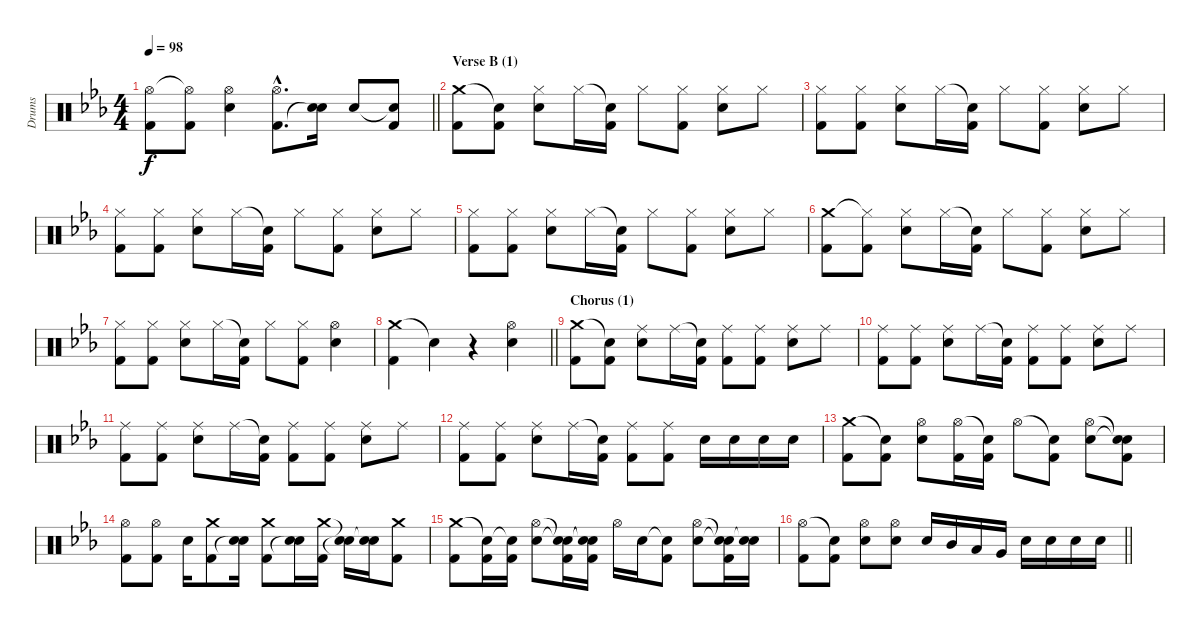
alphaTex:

\track ("Drums" "Drums") {instrument percussion}
\staff {score}
\articulation defaults
\ts (4 4)
\tempo 98
\clef neutral
\barLineRight lightlight
\ks cminor
("Hi-Hat (open)" "Kick (hit) 2").8{dy f} ("Hi-Hat (open)"{t} "Kick (hit) 2").8 ("Hi-Hat (open)" "Electric Snare (hit)").4 ("Hi-Hat (open)"{hac} "Kick (hit) 2"{hac}).8{d} ("Electric Snare (hit)" "Snare (hit)"{t}).16 "Electric Snare (hit)".8 ("Snare (hit)"{t} "Kick (hit) 2").8 |
\section ("" "Verse B (1)")
("Crash medium (hit)" "Kick (hit) 2").8 ("Snare (hit)"{t} "Kick (hit) 2").8 ("Hi-Hat (closed)" "Electric Snare (hit)").8 "Hi-Hat (closed)".16 ("Snare (hit)"{t} "Kick (hit) 2").16 "Hi-Hat (closed)".8 ("Hi-Hat (closed)" "Kick (hit) 2").8 ("Hi-Hat (closed)" "Electric Snare (hit)").8 "Hi-Hat (closed)".8 |
("Hi-Hat (closed)" "Kick (hit) 2").8 ("Hi-Hat (closed)" "Kick (hit) 2").8 ("Hi-Hat (closed)" "Electric Snare (hit)").8 "Hi-Hat (closed)".16 ("Snare (hit)"{t} "Kick (hit) 2").16 "Hi-Hat (closed)".8 ("Hi-Hat (closed)" "Kick (hit) 2").8 ("Hi-Hat (closed)" "Electric Snare (hit)").8 "Hi-Hat (closed)".8 |
("Hi-Hat (closed)" "Kick (hit) 2").8 ("Hi-Hat (closed)" "Kick (hit) 2").8 ("Hi-Hat (closed)" "Electric Snare (hit)").8 "Hi-Hat (closed)".16 ("Snare (hit)"{t} "Kick (hit) 2").16 "Hi-Hat (closed)".8 ("Hi-Hat (closed)" "Kick (hit) 2").8 ("Hi-Hat (closed)" "Electric Snare (hit)").8 "Hi-Hat (closed)".8 |
("Hi-Hat (closed)" "Kick (hit) 2").8 ("Hi-Hat (closed)" "Kick (hit) 2").8 ("Hi-Hat (closed)" "Electric Snare (hit)").8 "Hi-Hat (closed)".16 ("Snare (hit)"{t} "Kick (hit) 2").16 "Hi-Hat (closed)".8 ("Hi-Hat (closed)" "Kick (hit) 2").8 ("Hi-Hat (closed)" "Electric Snare (hit)").8 "Hi-Hat (closed)".8 |
("Crash medium (hit)" "Kick (hit) 2").8 ("Hi-Hat (closed)"{t} "Kick (hit) 2").8 ("Hi-Hat (closed)" "Electric Snare (hit)").8 "Hi-Hat (closed)".16 ("Snare (hit)"{t} "Kick (hit) 2").16 "Hi-Hat (closed)".8 ("Hi-Hat (closed)" "Kick (hit) 2").8 ("Hi-Hat (closed)" "Electric Snare (hit)").8 "Hi-Hat (closed)".8 |
("Hi-Hat (closed)" "Kick (hit) 2").8 ("Hi-Hat (closed)" "Kick (hit) 2").8 ("Hi-Hat (closed)" "Electric Snare (hit)").8 "Hi-Hat (closed)".16 ("Snare (hit)"{t} "Kick (hit) 2").16 "Hi-Hat (closed)".8 ("Hi-Hat (closed)" "Kick (hit) 2").8 ("Hi-Hat (open)" "Electric Snare (hit)").4 |
\barLineRight lightlight
("Crash medium (hit)" "Kick (hit) 2").4 "Snare (hit)"{t}.4 r.4 ("Hi-Hat (open)" "Electric Snare (hit)").4 |
\section ("" "Chorus (1)")
("Crash medium (hit)" "Kick (hit) 2").8 ("Snare (hit)"{t} "Kick (hit) 2").8 ("Ride (middle)" "Electric Snare (hit)").8 "Ride (middle)".16 ("Snare (hit)"{t} "Kick (hit) 2").16 ("Ride (middle)" "Kick (hit) 2").8 ("Ride (middle)" "Kick (hit) 2").8 ("Ride (middle)" "Electric Snare (hit)").8 "Ride (middle)".8 |
("Ride (middle)" "Kick (hit) 2").8 ("Ride (middle)" "Kick (hit) 2").8 ("Ride (middle)" "Electric Snare (hit)").8 "Ride (middle)".16 ("Snare (hit)"{t} "Kick (hit) 2").16 ("Ride (middle)" "Kick (hit) 2").8 ("Ride (middle)" "Kick (hit) 2").8 ("Ride (middle)" "Electric Snare (hit)").8 "Ride (middle)".8 |
("Ride (middle)" "Kick (hit) 2").8 ("Ride (middle)" "Kick (hit) 2").8 ("Ride (middle)" "Electric Snare (hit)").8 "Ride (middle)".16 ("Snare (hit)"{t} "Kick (hit) 2").16 ("Ride (middle)" "Kick (hit) 2").8 ("Ride (middle)" "Kick (hit) 2").8 ("Ride (middle)" "Electric Snare (hit)").8 "Ride (middle)".8 |
("Ride (middle)" "Kick (hit) 2").8 ("Ride (middle)" "Kick (hit) 2").8 ("Ride (middle)" "Electric Snare (hit)").8 "Ride (middle)".16 ("Snare (hit)"{t} "Kick (hit) 2").16 ("Ride (middle)" "Kick (hit) 2").8 ("Ride (middle)" "Kick (hit) 2").8 "Electric Snare (hit)".16 "Electric Snare (hit)".16 "Electric Snare (hit)".16 "Electric Snare (hit)".16 |
("Crash medium (hit)" "Kick (hit) 2").8 ("Snare (hit)"{t} "Kick (hit) 2").8 ("Hi-Hat (open)" "Electric Snare (hit)").8 ("Hi-Hat (open)" "Kick (hit) 2").16 ("Snare (hit)"{t} "Kick (hit) 2").16 "Hi-Hat (open)".8 ("Snare (hit)"{t} "Kick (hit) 2").8 ("Hi-Hat (open)" "Electric Snare (hit)").8 ("Snare (hit)"{t} "Snare (hit)"{t} "Kick (hit) 2").8 |
("Hi-Hat (open)" "Kick (hit) 2").8 ("Hi-Hat (open)" "Kick (hit) 2").8 "Electric Snare (hit)".16 ("Crash medium (hit)" "Kick (hit) 2").8 ("Electric Snare (hit)" "Snare (hit)"{t}).16 ("Crash medium (hit)" "Kick (hit) 2").8 ("Electric Snare (hit)" "Snare (hit)"{t}).16 ("Crash medium (hit)" "Kick (hit) 2").16 ("Snare (hit)"{t} "Snare (hit)"{t}).16 ("Electric Snare (hit)" "Snare (hit)"{t}).16 ("Crash medium (hit)" "Kick (hit) 2").8 |
("Crash medium (hit)" "Kick (hit) 2").8 ("Snare (hit)"{t} "Kick (hit) 2").16 ("Snare (hit)"{t} "Kick (hit) 2").16 ("Hi-Hat (open)" "Electric Snare (hit)").8 ("Snare (hit)"{t} "Snare (hit)"{t} "Kick (hit) 2").16 ("Snare (hit)"{t} "Snare (hit)"{t} "Kick (hit) 2").16 "Hi-Hat (open)".16 "Electric Snare (hit)".16 ("Snare (hit)"{t} "Kick (hit) 2").8 ("Hi-Hat (open)" "Electric Snare (hit)").8 ("Snare (hit)"{t} "Snare (hit)"{t} "Kick (hit) 2").16 ("Electric Snare (hit)" "Snare (hit)"{t}).16 |
\barLineRight lightlight
("Hi-Hat (open)" "Kick (hit) 2").8 ("Snare (hit)"{t} "Kick (hit) 2").8 ("Hi-Hat (open)" "Electric Snare (hit)").8 ("Hi-Hat (open)" "Electric Snare (hit)").8 "Electric Snare (hit)".16 "Mid Tom (hit)".16 "Low Tom (hit)".16 "Very Low Tom (hit)".16 "Electric Snare (hit)".16 "Electric Snare (hit)".16 "Electric Snare (hit)".16 "Electric Snare (hit)".16
